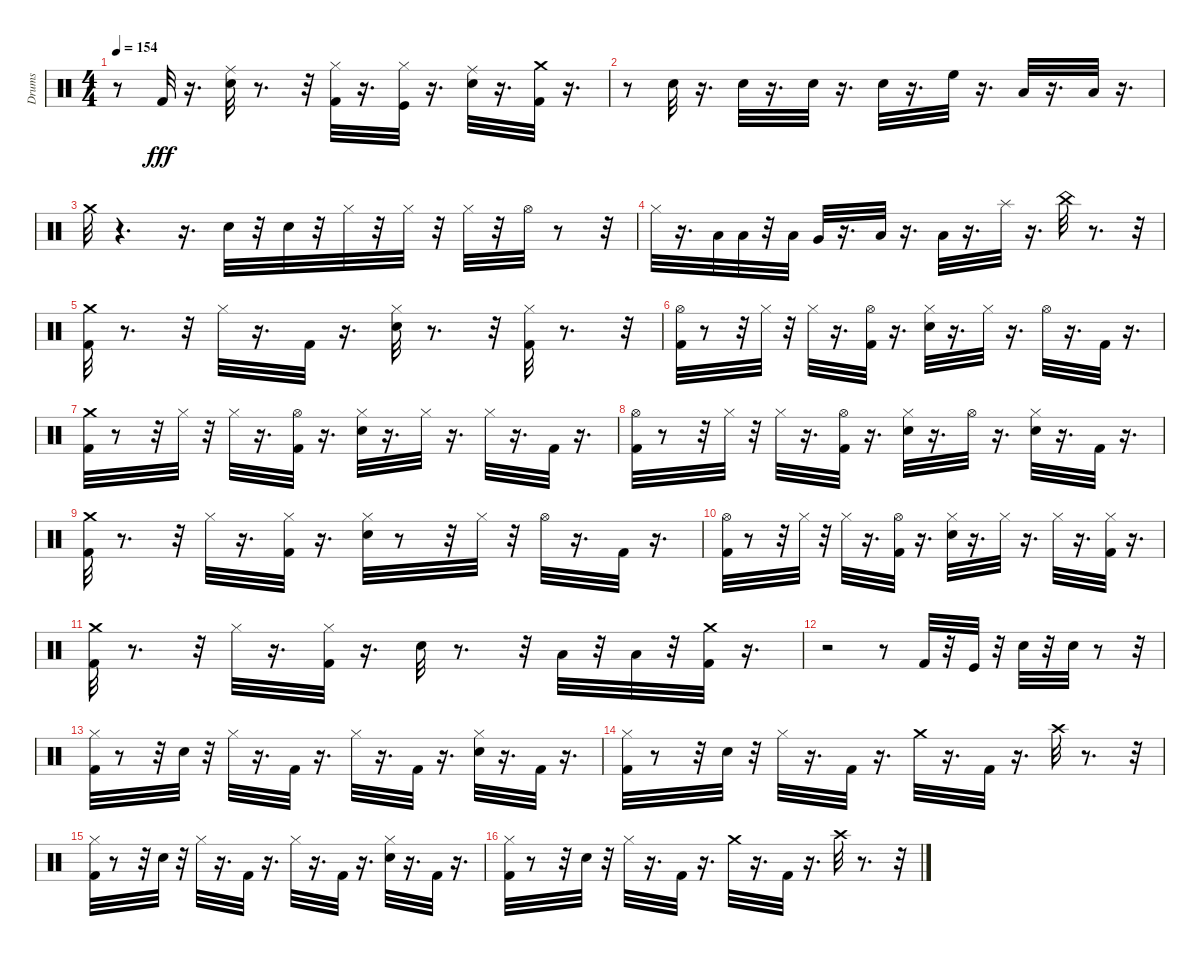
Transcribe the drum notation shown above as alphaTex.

\track ("Drums" "Drums") {instrument percussion}
\staff {score}
\articulation defaults
\ts (4 4)
\tempo 154
\clef neutral
\ks c
r.8{dy fff} "Kick (hit) 2".32 r.16{d} ("Snare (hit) 2" "Ride (middle)").32 r.8{d} r.32 ("Kick (hit) 2" "Hi-Hat (closed)").32 r.16{d} ("Kick (hit)" "Hi-Hat (closed)").32 r.16{d} ("Snare (hit) 2" "Ride (middle)").32 r.16{d} ("Kick (hit) 2" "Crash medium (hit)").32 r.16{d} |
r.8 "Snare (hit) 2".32 r.16{d} "Snare (hit) 2".32 r.16{d} "Snare (hit) 2".32 r.16{d} "Snare (hit) 2".32 r.16{d} "High Floor Tom (hit)".32 r.16{d} "Low Tom (hit)".32 r.16{d} "Low Floor Tom (hit)".32 r.16{d} |
"Crash medium (hit)".32 r.4{d} r.16{d} "Snare (hit) 2".32 r.32 "Snare (hit) 2".32 r.32 "Hi-Hat (closed)".32 r.32 "Hi-Hat (closed)".32 r.32 "Hi-Hat (closed)".32 r.32 "Hi-Hat (open)".32 r.8 r.32 |
"Hi-Hat (closed)".32 r.16{d} "Low Tom (hit)".32 "Low Tom (hit)".32 r.32 "Low Tom (hit)".32 "Very Low Tom (hit)".32 r.16{d} "Low Floor Tom (hit)".32 r.16{d} "Low Floor Tom (hit)".32 r.16{d} "Splash (hit)".32 r.16{d} "China (hit)".32 r.8{d} r.32 |
("Kick (hit) 2" "Crash medium (hit)").32 r.8{d} r.32 "Hi-Hat (closed)".32 r.16{d} "Kick (hit) 2".32 r.16{d} ("Snare (hit) 2" "Hi-Hat (closed)").32 r.8{d} r.32 ("Kick (hit) 2" "Hi-Hat (closed)").32 r.8{d} r.32 |
("Kick (hit) 2" "Hi-Hat (open)").32 r.8 r.32 "Hi-Hat (closed)".32 r.32 "Hi-Hat (closed)".32 r.16{d} ("Kick (hit) 2" "Hi-Hat (open)").32 r.16{d} ("Snare (hit) 2" "Hi-Hat (closed)").32 r.16{d} "Hi-Hat (closed)".32 r.16{d} "Hi-Hat (open)".32 r.16{d} "Kick (hit) 2".32 r.16{d} |
("Kick (hit) 2" "Crash medium (hit)").32 r.8 r.32 "Hi-Hat (closed)".32 r.32 "Hi-Hat (closed)".32 r.16{d} ("Kick (hit) 2" "Hi-Hat (open)").32 r.16{d} ("Snare (hit) 2" "Hi-Hat (closed)").32 r.16{d} "Hi-Hat (closed)".32 r.16{d} "Hi-Hat (closed)".32 r.16{d} "Kick (hit) 2".32 r.16{d} |
("Kick (hit) 2" "Hi-Hat (open)").32 r.8 r.32 "Hi-Hat (closed)".32 r.32 "Hi-Hat (closed)".32 r.16{d} ("Kick (hit) 2" "Hi-Hat (open)").32 r.16{d} ("Snare (hit) 2" "Hi-Hat (closed)").32 r.16{d} "Hi-Hat (open)".32 r.16{d} ("Snare (hit) 2" "Hi-Hat (closed)").32 r.16{d} "Kick (hit) 2".32 r.16{d} |
("Kick (hit) 2" "Crash medium (hit)").32 r.8{d} r.32 "Hi-Hat (closed)".32 r.16{d} ("Kick (hit) 2" "Hi-Hat (closed)").32 r.16{d} ("Snare (hit) 2" "Hi-Hat (closed)").32 r.8 r.32 "Hi-Hat (closed)".32 r.32 "Hi-Hat (open)".32 r.16{d} "Kick (hit) 2".32 r.16{d} |
("Kick (hit) 2" "Hi-Hat (open)").32 r.8 r.32 "Hi-Hat (closed)".32 r.32 "Hi-Hat (closed)".32 r.16{d} ("Kick (hit) 2" "Hi-Hat (open)").32 r.16{d} ("Snare (hit) 2" "Hi-Hat (closed)").32 r.16{d} "Hi-Hat (closed)".32 r.16{d} "Hi-Hat (closed)".32 r.16{d} ("Kick (hit) 2" "Hi-Hat (closed)").32 r.16{d} |
("Kick (hit) 2" "Crash medium (hit)").32 r.8{d} r.32 "Hi-Hat (closed)".32 r.16{d} ("Kick (hit) 2" "Hi-Hat (closed)").32 r.16{d} "Snare (hit) 2".32 r.8{d} r.32 "Low Floor Tom (hit)".32 r.32 "Low Floor Tom (hit)".32 r.32 ("Kick (hit) 2" "Crash medium (hit)").32 r.16{d} |
r.2 r.8 "Kick (hit) 2".32 r.32 "Kick (hit)".32 r.32 "Snare (hit) 2".32 r.32 "Snare (hit) 2".32 r.8 r.32 |
("Kick (hit) 2" "Hi-Hat (closed)").32 r.8 r.32 "Snare (hit) 2".32 r.32 "Hi-Hat (closed)".32 r.16{d} "Kick (hit) 2".32 r.16{d} "Hi-Hat (closed)".32 r.16{d} "Kick (hit) 2".32 r.16{d} ("Snare (hit) 2" "Hi-Hat (closed)").32 r.16{d} "Kick (hit) 2".32 r.16{d} |
("Kick (hit) 2" "Hi-Hat (closed)").32 r.8 r.32 "Snare (hit) 2".32 r.32 "Hi-Hat (closed)".32 r.16{d} "Kick (hit) 2".32 r.16{d} "Crash medium (hit)".32 r.16{d} "Kick (hit) 2".32 r.16{d} "Crash high (hit)".32 r.8{d} r.32 |
("Kick (hit) 2" "Hi-Hat (closed)").32 r.8 r.32 "Snare (hit) 2".32 r.32 "Hi-Hat (closed)".32 r.16{d} "Kick (hit) 2".32 r.16{d} "Hi-Hat (closed)".32 r.16{d} "Kick (hit) 2".32 r.16{d} ("Snare (hit) 2" "Hi-Hat (closed)").32 r.16{d} "Kick (hit) 2".32 r.16{d} |
("Kick (hit) 2" "Hi-Hat (closed)").32 r.8 r.32 "Snare (hit) 2".32 r.32 "Hi-Hat (closed)".32 r.16{d} "Kick (hit) 2".32 r.16{d} "Crash medium (hit)".32 r.16{d} "Kick (hit) 2".32 r.16{d} "Crash high (hit)".32 r.8{d} r.32
